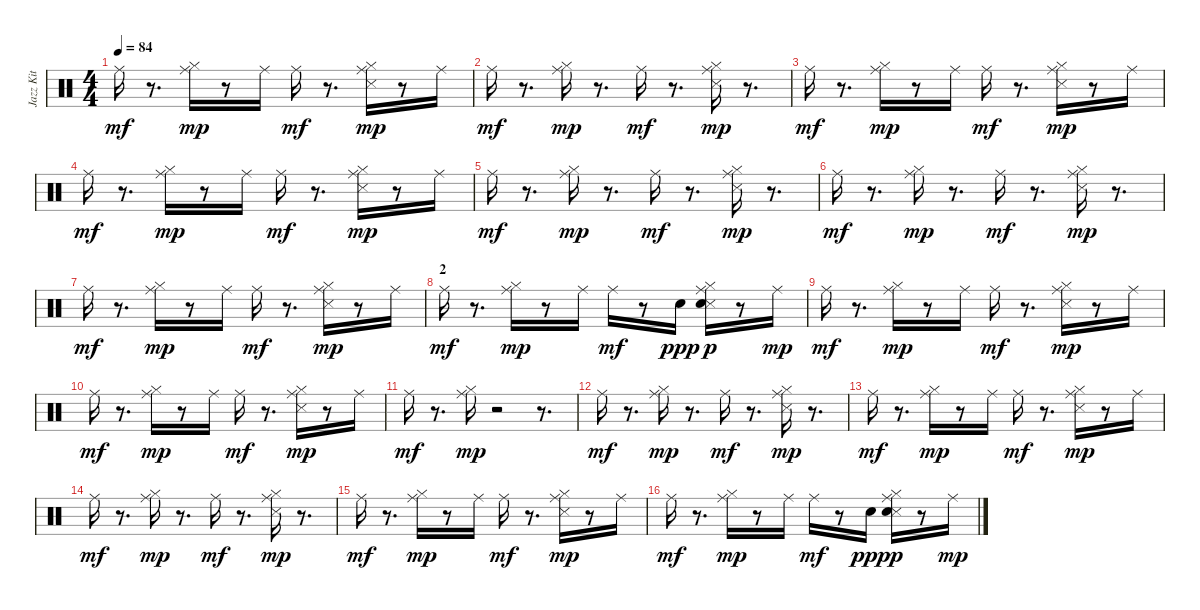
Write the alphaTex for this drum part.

\track ("Jazz Kit" "Jazz Kit") {instrument percussion}
\staff {score}
\articulation defaults
\ts (4 4)
\tempo 84
\clef neutral
\ks c "Ride (middle)".16{dy mf}
r.8{d} ("Ride (middle)" "Hi-Hat (closed)").16{dy mp} r.8 "Ride (middle)".16 "Ride (middle)".16{dy mf} r.8{d} ("Ride (middle)" "Snare (side stick) 3" "Hi-Hat (closed)").16{dy mp} r.8 "Ride (middle)".16 |
"Ride (middle)".16{dy mf} r.8{d} ("Ride (middle)" "Hi-Hat (closed)").16{dy mp} r.8{d} "Ride (middle)".16{dy mf} r.8{d} ("Ride (middle)" "Snare (side stick) 3" "Hi-Hat (closed)").16{dy mp} r.8{d} |
"Ride (middle)".16{dy mf} r.8{d} ("Ride (middle)" "Hi-Hat (closed)").16{dy mp} r.8 "Ride (middle)".16 "Ride (middle)".16{dy mf} r.8{d} ("Ride (middle)" "Snare (side stick) 3" "Hi-Hat (closed)").16{dy mp} r.8 "Ride (middle)".16 |
"Ride (middle)".16{dy mf} r.8{d} ("Ride (middle)" "Hi-Hat (closed)").16{dy mp} r.8 "Ride (middle)".16 "Ride (middle)".16{dy mf} r.8{d} ("Ride (middle)" "Snare (side stick) 3" "Hi-Hat (closed)").16{dy mp} r.8 "Ride (middle)".16 |
"Ride (middle)".16{dy mf} r.8{d} ("Ride (middle)" "Hi-Hat (closed)").16{dy mp} r.8{d} "Ride (middle)".16{dy mf} r.8{d} ("Ride (middle)" "Snare (side stick) 3" "Hi-Hat (closed)").16{dy mp} r.8{d} |
"Ride (middle)".16{dy mf} r.8{d} ("Ride (middle)" "Hi-Hat (closed)").16{dy mp} r.8{d} "Ride (middle)".16{dy mf} r.8{d} ("Ride (middle)" "Snare (side stick) 3" "Hi-Hat (closed)").16{dy mp} r.8{d} |
"Ride (middle)".16{dy mf} r.8{d} ("Ride (middle)" "Hi-Hat (closed)").16{dy mp} r.8 "Ride (middle)".16 "Ride (middle)".16{dy mf} r.8{d} ("Ride (middle)" "Snare (side stick) 3" "Hi-Hat (closed)").16{dy mp} r.8 "Ride (middle)".16 |
\section ("" "2")
"Ride (middle)".16{dy mf} r.8{d} ("Ride (middle)" "Hi-Hat (closed)").16{dy mp} r.8 "Ride (middle)".16 "Ride (middle)".16{dy mf} r.8 "Snare (hit) 2".16{dy ppp} ("Ride (middle)" "Snare (side stick) 3" "Hi-Hat (closed)" "Snare (hit) 2").16{dy p} r.8 "Ride (middle)".16{dy mp} |
"Ride (middle)".16{dy mf} r.8{d} ("Ride (middle)" "Hi-Hat (closed)").16{dy mp} r.8 "Ride (middle)".16 "Ride (middle)".16{dy mf} r.8{d} ("Ride (middle)" "Snare (side stick) 3" "Hi-Hat (closed)").16{dy mp} r.8 "Ride (middle)".16 |
"Ride (middle)".16{dy mf} r.8{d} ("Ride (middle)" "Hi-Hat (closed)").16{dy mp} r.8 "Ride (middle)".16 "Ride (middle)".16{dy mf} r.8{d} ("Ride (middle)" "Snare (side stick) 3" "Hi-Hat (closed)").16{dy mp} r.8 "Ride (middle)".16 |
"Ride (middle)".16{dy mf} r.8{d} ("Ride (middle)" "Hi-Hat (closed)").16{dy mp} r.2 r.8{d} |
"Ride (middle)".16{dy mf} r.8{d} ("Ride (middle)" "Hi-Hat (closed)").16{dy mp} r.8{d} "Ride (middle)".16{dy mf} r.8{d} ("Ride (middle)" "Snare (side stick) 3" "Hi-Hat (closed)").16{dy mp} r.8{d} |
"Ride (middle)".16{dy mf} r.8{d} ("Ride (middle)" "Hi-Hat (closed)").16{dy mp} r.8 "Ride (middle)".16 "Ride (middle)".16{dy mf} r.8{d} ("Ride (middle)" "Snare (side stick) 3" "Hi-Hat (closed)").16{dy mp} r.8 "Ride (middle)".16 |
"Ride (middle)".16{dy mf} r.8{d} ("Ride (middle)" "Hi-Hat (closed)").16{dy mp} r.8{d} "Ride (middle)".16{dy mf} r.8{d} ("Ride (middle)" "Snare (side stick) 3" "Hi-Hat (closed)").16{dy mp} r.8{d} |
"Ride (middle)".16{dy mf} r.8{d} ("Ride (middle)" "Hi-Hat (closed)").16{dy mp} r.8 "Ride (middle)".16 "Ride (middle)".16{dy mf} r.8{d} ("Ride (middle)" "Snare (side stick) 3" "Hi-Hat (closed)").16{dy mp} r.8 "Ride (middle)".16 |
"Ride (middle)".16{dy mf} r.8{d} ("Ride (middle)" "Hi-Hat (closed)").16{dy mp} r.8 "Ride (middle)".16 "Ride (middle)".16{dy mf} r.8 "Snare (hit) 2".16{dy ppp} ("Ride (middle)" "Snare (side stick) 3" "Hi-Hat (closed)" "Snare (hit) 2").16{dy p} r.8 "Ride (middle)".16{dy mp}
